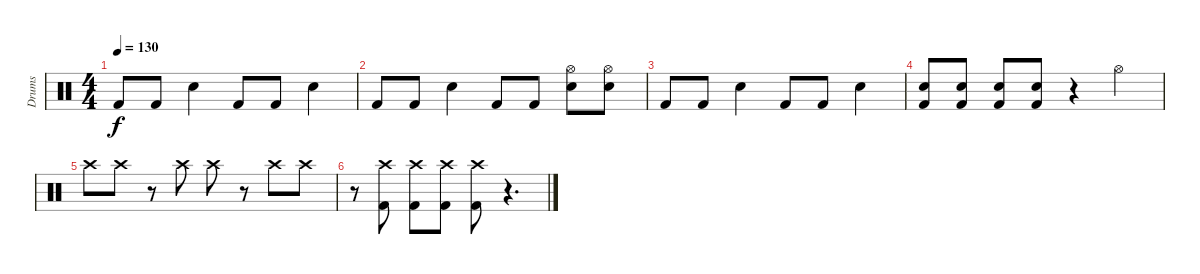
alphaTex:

\track ("Drums" "Drums") {instrument percussion}
\staff {score}
\articulation defaults
\ts (4 4)
\tempo 130
\clef neutral
\ks c "Kick (hit) 2".8{dy f} "Kick (hit) 2".8 "Snare (hit) 2".4 "Kick (hit) 2".8 "Kick (hit) 2".8 "Snare (hit) 2".4
|
"Kick (hit) 2".8 "Kick (hit) 2".8 "Snare (hit) 2".4 "Kick (hit) 2".8 "Kick (hit) 2".8 ("Snare (hit) 2" "Hi-Hat (open)").8 ("Snare (hit) 2" "Hi-Hat (open)").8 |
"Kick (hit) 2".8 "Kick (hit) 2".8 "Snare (hit) 2".4 "Kick (hit) 2".8 "Kick (hit) 2".8 "Snare (hit) 2".4 |
("Kick (hit) 2" "Snare (hit) 2").8 ("Kick (hit) 2" "Snare (hit) 2").8 ("Kick (hit) 2" "Snare (hit) 2").8 ("Kick (hit) 2" "Snare (hit) 2").8 r.4 "Hi-Hat (open)".4 |
"Crash high (hit)".8 "Crash high (hit)".8 r.8 "Crash high (hit)".8 "Crash high (hit)".8 r.8 "Crash high (hit)".8 "Crash high (hit)".8 |
r.8 ("Kick (hit) 2" "Crash high (hit)").8 ("Kick (hit) 2" "Crash high (hit)").8 ("Kick (hit) 2" "Crash high (hit)").8 ("Kick (hit) 2" "Crash high (hit)").8 r.4{d}
